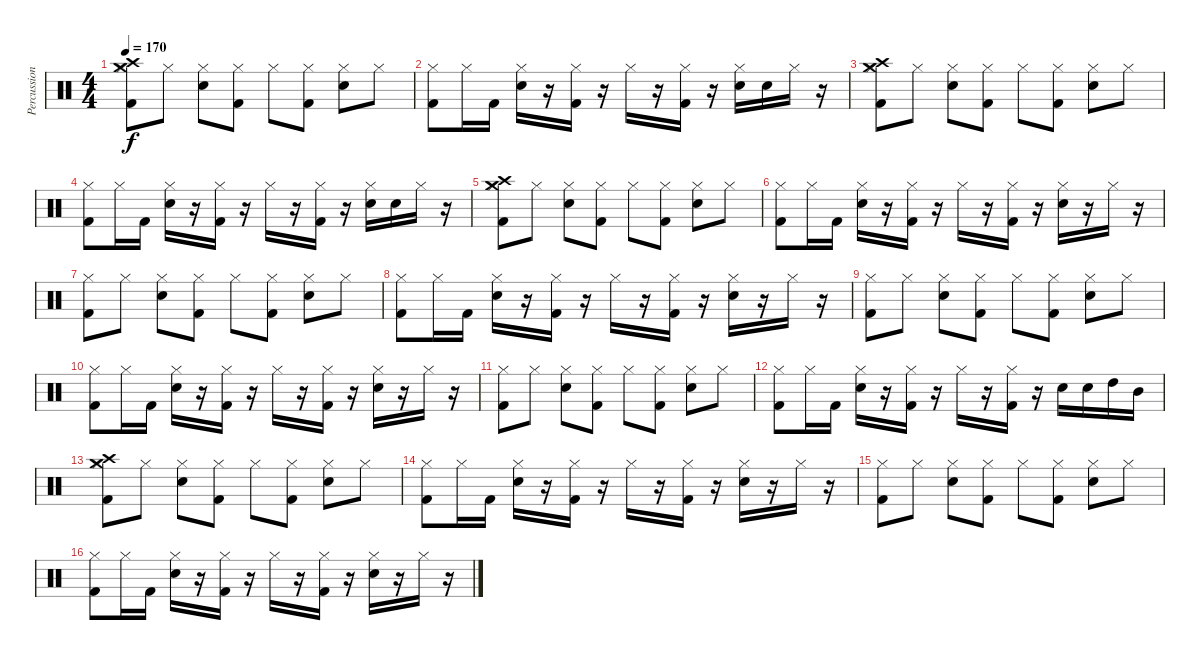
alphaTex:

\track ("Percussions" "Percussion") {instrument percussion}
\staff {score}
\articulation defaults
\ts (4 4)
\tempo 170
\clef neutral
\ks c
("Crash medium (hit)" "Crash high (hit)" "Hi-Hat (closed)" "Kick (hit) 2").8{dy f} "Hi-Hat (closed)".8 ("Hi-Hat (closed)" "Electric Snare (hit)").8 ("Hi-Hat (closed)" "Kick (hit) 2").8 "Hi-Hat (closed)".8 ("Hi-Hat (closed)" "Kick (hit) 2").8 ("Hi-Hat (closed)" "Electric Snare (hit)").8 "Hi-Hat (closed)".8 |
("Hi-Hat (closed)" "Kick (hit) 2").8 "Hi-Hat (closed)".16 "Kick (hit) 2".16 ("Hi-Hat (closed)" "Electric Snare (hit)").16 r.16 ("Hi-Hat (closed)" "Kick (hit) 2").16 r.16 "Hi-Hat (closed)".16 r.16 ("Hi-Hat (closed)" "Kick (hit) 2").16 r.16 ("Hi-Hat (closed)" "Electric Snare (hit)").16 "Electric Snare (hit)".16 "Hi-Hat (closed)".16 r.16 |
("Crash medium (hit)" "Crash high (hit)" "Hi-Hat (closed)" "Kick (hit) 2").8 "Hi-Hat (closed)".8 ("Hi-Hat (closed)" "Electric Snare (hit)").8 ("Hi-Hat (closed)" "Kick (hit) 2").8 "Hi-Hat (closed)".8 ("Hi-Hat (closed)" "Kick (hit) 2").8 ("Hi-Hat (closed)" "Electric Snare (hit)").8 "Hi-Hat (closed)".8 |
("Hi-Hat (closed)" "Kick (hit) 2").8 "Hi-Hat (closed)".16 "Kick (hit) 2".16 ("Hi-Hat (closed)" "Electric Snare (hit)").16 r.16 ("Hi-Hat (closed)" "Kick (hit) 2").16 r.16 "Hi-Hat (closed)".16 r.16 ("Hi-Hat (closed)" "Kick (hit) 2").16 r.16 ("Hi-Hat (closed)" "Electric Snare (hit)").16 "Electric Snare (hit)".16 "Hi-Hat (closed)".16 r.16 |
("Crash medium (hit)" "Crash high (hit)" "Hi-Hat (closed)" "Kick (hit) 2").8 "Hi-Hat (closed)".8 ("Hi-Hat (closed)" "Electric Snare (hit)").8 ("Hi-Hat (closed)" "Kick (hit) 2").8 "Hi-Hat (closed)".8 ("Hi-Hat (closed)" "Kick (hit) 2").8 ("Hi-Hat (closed)" "Electric Snare (hit)").8 "Hi-Hat (closed)".8 |
("Hi-Hat (closed)" "Kick (hit) 2").8 "Hi-Hat (closed)".16 "Kick (hit) 2".16 ("Hi-Hat (closed)" "Electric Snare (hit)").16 r.16 ("Hi-Hat (closed)" "Kick (hit) 2").16 r.16 "Hi-Hat (closed)".16 r.16 ("Hi-Hat (closed)" "Kick (hit) 2").16 r.16 ("Hi-Hat (closed)" "Electric Snare (hit)").16 r.16 "Hi-Hat (closed)".16 r.16 |
("Hi-Hat (closed)" "Kick (hit) 2").8 "Hi-Hat (closed)".8 ("Hi-Hat (closed)" "Electric Snare (hit)").8 ("Hi-Hat (closed)" "Kick (hit) 2").8 "Hi-Hat (closed)".8 ("Hi-Hat (closed)" "Kick (hit) 2").8 ("Hi-Hat (closed)" "Electric Snare (hit)").8 "Hi-Hat (closed)".8 |
("Hi-Hat (closed)" "Kick (hit) 2").8 "Hi-Hat (closed)".16 "Kick (hit) 2".16 ("Hi-Hat (closed)" "Electric Snare (hit)").16 r.16 ("Hi-Hat (closed)" "Kick (hit) 2").16 r.16 "Hi-Hat (closed)".16 r.16 ("Hi-Hat (closed)" "Kick (hit) 2").16 r.16 ("Hi-Hat (closed)" "Electric Snare (hit)").16 r.16 "Hi-Hat (closed)".16 r.16 |
("Hi-Hat (closed)" "Kick (hit) 2").8 "Hi-Hat (closed)".8 ("Hi-Hat (closed)" "Electric Snare (hit)").8 ("Hi-Hat (closed)" "Kick (hit) 2").8 "Hi-Hat (closed)".8 ("Hi-Hat (closed)" "Kick (hit) 2").8 ("Hi-Hat (closed)" "Electric Snare (hit)").8 "Hi-Hat (closed)".8 |
("Hi-Hat (closed)" "Kick (hit) 2").8 "Hi-Hat (closed)".16 "Kick (hit) 2".16 ("Hi-Hat (closed)" "Electric Snare (hit)").16 r.16 ("Hi-Hat (closed)" "Kick (hit) 2").16 r.16 "Hi-Hat (closed)".16 r.16 ("Hi-Hat (closed)" "Kick (hit) 2").16 r.16 ("Hi-Hat (closed)" "Electric Snare (hit)").16 r.16 "Hi-Hat (closed)".16 r.16 |
("Hi-Hat (closed)" "Kick (hit) 2").8 "Hi-Hat (closed)".8 ("Hi-Hat (closed)" "Electric Snare (hit)").8 ("Hi-Hat (closed)" "Kick (hit) 2").8 "Hi-Hat (closed)".8 ("Hi-Hat (closed)" "Kick (hit) 2").8 ("Hi-Hat (closed)" "Electric Snare (hit)").8 "Hi-Hat (closed)".8 |
("Hi-Hat (closed)" "Kick (hit) 2").8 "Hi-Hat (closed)".16 "Kick (hit) 2".16 ("Hi-Hat (closed)" "Electric Snare (hit)").16 r.16 ("Hi-Hat (closed)" "Kick (hit) 2").16 r.16 "Hi-Hat (closed)".16 r.16 ("Hi-Hat (closed)" "Kick (hit) 2").16 r.16 "Electric Snare (hit)".16 "Electric Snare (hit)".16 "High Tom (hit)".16 "Mid Tom (hit)".16 |
("Crash medium (hit)" "Crash high (hit)" "Hi-Hat (closed)" "Kick (hit) 2").8 "Hi-Hat (closed)".8 ("Hi-Hat (closed)" "Electric Snare (hit)").8 ("Hi-Hat (closed)" "Kick (hit) 2").8 "Hi-Hat (closed)".8 ("Hi-Hat (closed)" "Kick (hit) 2").8 ("Hi-Hat (closed)" "Electric Snare (hit)").8 "Hi-Hat (closed)".8 |
("Hi-Hat (closed)" "Kick (hit) 2").8 "Hi-Hat (closed)".16 "Kick (hit) 2".16 ("Hi-Hat (closed)" "Electric Snare (hit)").16 r.16 ("Hi-Hat (closed)" "Kick (hit) 2").16 r.16 "Hi-Hat (closed)".16 r.16 ("Hi-Hat (closed)" "Kick (hit) 2").16 r.16 ("Hi-Hat (closed)" "Electric Snare (hit)").16 r.16 "Hi-Hat (closed)".16 r.16 |
("Hi-Hat (closed)" "Kick (hit) 2").8 "Hi-Hat (closed)".8 ("Hi-Hat (closed)" "Electric Snare (hit)").8 ("Hi-Hat (closed)" "Kick (hit) 2").8 "Hi-Hat (closed)".8 ("Hi-Hat (closed)" "Kick (hit) 2").8 ("Hi-Hat (closed)" "Electric Snare (hit)").8 "Hi-Hat (closed)".8 |
("Hi-Hat (closed)" "Kick (hit) 2").8 "Hi-Hat (closed)".16 "Kick (hit) 2".16 ("Hi-Hat (closed)" "Electric Snare (hit)").16 r.16 ("Hi-Hat (closed)" "Kick (hit) 2").16 r.16 "Hi-Hat (closed)".16 r.16 ("Hi-Hat (closed)" "Kick (hit) 2").16 r.16 ("Hi-Hat (closed)" "Electric Snare (hit)").16 r.16 "Hi-Hat (closed)".16 r.16
